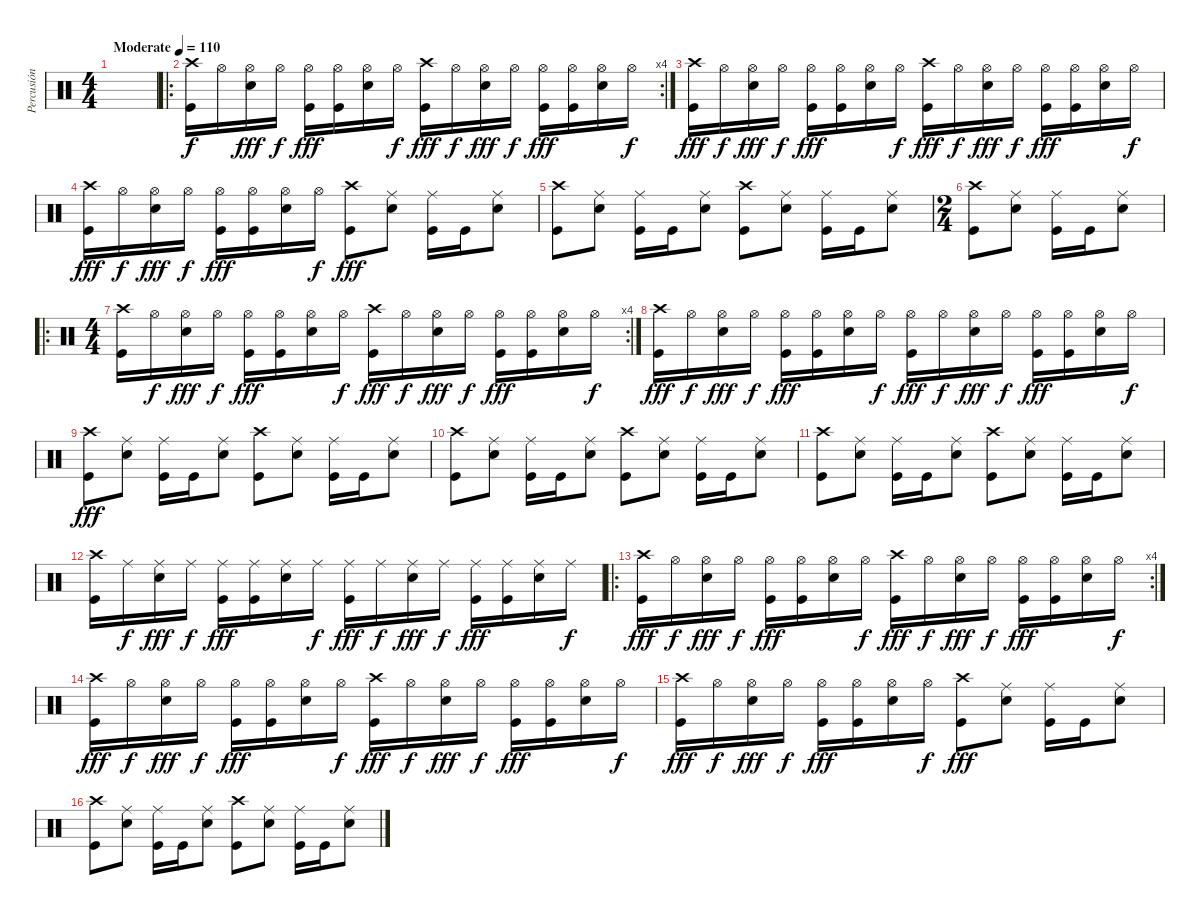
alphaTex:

\track ("Percusión" "Percusión") {instrument percussion}
\staff {score}
\articulation defaults
\ts (4 4)
\tempo (110 "Moderate")
\clef neutral
\ks c
|
\ro
\rc 4
("Crash high (hit)" "Kick (hit)").16 "Hi-Hat (open)".16{dy f} ("Hi-Hat (open)" "Electric Snare (hit)").16{dy fff} "Hi-Hat (open)".16{dy f} ("Hi-Hat (open)" "Kick (hit)").16{dy fff} ("Hi-Hat (open)" "Kick (hit)").16 ("Hi-Hat (open)" "Electric Snare (hit)").16 "Hi-Hat (open)".16{dy f} ("Crash high (hit)" "Kick (hit)").16{dy fff} "Hi-Hat (open)".16{dy f} ("Hi-Hat (open)" "Electric Snare (hit)").16{dy fff} "Hi-Hat (open)".16{dy f} ("Hi-Hat (open)" "Kick (hit)").16{dy fff} ("Hi-Hat (open)" "Kick (hit)").16 ("Hi-Hat (open)" "Electric Snare (hit)").16 "Hi-Hat (open)".16{dy f} |
("Crash high (hit)" "Kick (hit)").16{dy fff} "Hi-Hat (open)".16{dy f} ("Hi-Hat (open)" "Electric Snare (hit)").16{dy fff} "Hi-Hat (open)".16{dy f} ("Hi-Hat (open)" "Kick (hit)").16{dy fff} ("Hi-Hat (open)" "Kick (hit)").16 ("Hi-Hat (open)" "Electric Snare (hit)").16 "Hi-Hat (open)".16{dy f} ("Crash high (hit)" "Kick (hit)").16{dy fff} "Hi-Hat (open)".16{dy f} ("Hi-Hat (open)" "Electric Snare (hit)").16{dy fff} "Hi-Hat (open)".16{dy f} ("Hi-Hat (open)" "Kick (hit)").16{dy fff} ("Hi-Hat (open)" "Kick (hit)").16 ("Hi-Hat (open)" "Electric Snare (hit)").16 "Hi-Hat (open)".16{dy f} |
("Crash high (hit)" "Kick (hit)").16{dy fff} "Hi-Hat (open)".16{dy f} ("Hi-Hat (open)" "Electric Snare (hit)").16{dy fff} "Hi-Hat (open)".16{dy f} ("Hi-Hat (open)" "Kick (hit)").16{dy fff} ("Hi-Hat (open)" "Kick (hit)").16 ("Hi-Hat (open)" "Electric Snare (hit)").16 "Hi-Hat (open)".16{dy f} ("Crash high (hit)" "Kick (hit)").8{dy fff} ("Ride (middle)" "Electric Snare (hit)").8 ("Ride (middle)" "Kick (hit)").16 "Kick (hit)".16 ("Ride (middle)" "Electric Snare (hit)").8 |
("Crash high (hit)" "Kick (hit)").8 ("Ride (middle)" "Electric Snare (hit)").8 ("Ride (middle)" "Kick (hit)").16 "Kick (hit)".16 ("Ride (middle)" "Electric Snare (hit)").8 ("Crash high (hit)" "Kick (hit)").8 ("Ride (middle)" "Electric Snare (hit)").8 ("Ride (middle)" "Kick (hit)").16 "Kick (hit)".16 ("Ride (middle)" "Electric Snare (hit)").8 |
\ts (2 4)
("Crash high (hit)" "Kick (hit)").8 ("Ride (middle)" "Electric Snare (hit)").8 ("Ride (middle)" "Kick (hit)").16 "Kick (hit)".16 ("Ride (middle)" "Electric Snare (hit)").8 |
\ro
\rc 4
\ts (4 4)
("Crash high (hit)" "Kick (hit)").16 "Hi-Hat (open)".16{dy f} ("Hi-Hat (open)" "Electric Snare (hit)").16{dy fff} "Hi-Hat (open)".16{dy f} ("Hi-Hat (open)" "Kick (hit)").16{dy fff} ("Hi-Hat (open)" "Kick (hit)").16 ("Hi-Hat (open)" "Electric Snare (hit)").16 "Hi-Hat (open)".16{dy f} ("Crash high (hit)" "Kick (hit)").16{dy fff} "Hi-Hat (open)".16{dy f} ("Hi-Hat (open)" "Electric Snare (hit)").16{dy fff} "Hi-Hat (open)".16{dy f} ("Hi-Hat (open)" "Kick (hit)").16{dy fff} ("Hi-Hat (open)" "Kick (hit)").16 ("Hi-Hat (open)" "Electric Snare (hit)").16 "Hi-Hat (open)".16{dy f} |
("Crash high (hit)" "Kick (hit)").16{dy fff} "Hi-Hat (open)".16{dy f} ("Hi-Hat (open)" "Electric Snare (hit)").16{dy fff} "Hi-Hat (open)".16{dy f} ("Hi-Hat (open)" "Kick (hit)").16{dy fff} ("Hi-Hat (open)" "Kick (hit)").16 ("Hi-Hat (open)" "Electric Snare (hit)").16 "Hi-Hat (open)".16{dy f} ("Hi-Hat (open)" "Kick (hit)").16{dy fff} "Hi-Hat (open)".16{dy f} ("Hi-Hat (open)" "Electric Snare (hit)").16{dy fff} "Hi-Hat (open)".16{dy f} ("Hi-Hat (open)" "Kick (hit)").16{dy fff} ("Hi-Hat (open)" "Kick (hit)").16 ("Hi-Hat (open)" "Electric Snare (hit)").16 "Hi-Hat (open)".16{dy f} |
("Crash high (hit)" "Kick (hit)").8{dy fff} ("Ride (middle)" "Electric Snare (hit)").8 ("Ride (middle)" "Kick (hit)").16 "Kick (hit)".16 ("Ride (middle)" "Electric Snare (hit)").8 ("Crash high (hit)" "Kick (hit)").8 ("Ride (middle)" "Electric Snare (hit)").8 ("Ride (middle)" "Kick (hit)").16 "Kick (hit)".16 ("Ride (middle)" "Electric Snare (hit)").8 |
("Crash high (hit)" "Kick (hit)").8 ("Ride (middle)" "Electric Snare (hit)").8 ("Ride (middle)" "Kick (hit)").16 "Kick (hit)".16 ("Ride (middle)" "Electric Snare (hit)").8 ("Crash high (hit)" "Kick (hit)").8 ("Ride (middle)" "Electric Snare (hit)").8 ("Ride (middle)" "Kick (hit)").16 "Kick (hit)".16 ("Ride (middle)" "Electric Snare (hit)").8 |
("Crash high (hit)" "Kick (hit)").8 ("Ride (middle)" "Electric Snare (hit)").8 ("Ride (middle)" "Kick (hit)").16 "Kick (hit)".16 ("Ride (middle)" "Electric Snare (hit)").8 ("Crash high (hit)" "Kick (hit)").8 ("Ride (middle)" "Electric Snare (hit)").8 ("Ride (middle)" "Kick (hit)").16 "Kick (hit)".16 ("Ride (middle)" "Electric Snare (hit)").8 |
("Crash high (hit)" "Kick (hit)").16 "Ride (middle)".16{dy f} ("Ride (middle)" "Electric Snare (hit)").16{dy fff} "Ride (middle)".16{dy f} ("Ride (middle)" "Kick (hit)").16{dy fff} ("Ride (middle)" "Kick (hit)").16 ("Ride (middle)" "Electric Snare (hit)").16 "Ride (middle)".16{dy f} ("Ride (middle)" "Kick (hit)").16{dy fff} "Ride (middle)".16{dy f} ("Ride (middle)" "Electric Snare (hit)").16{dy fff} "Ride (middle)".16{dy f} ("Ride (middle)" "Kick (hit)").16{dy fff} ("Ride (middle)" "Kick (hit)").16 ("Ride (middle)" "Electric Snare (hit)").16 "Ride (middle)".16{dy f} |
\ro
\rc 4
("Crash high (hit)" "Kick (hit)").16{dy fff} "Hi-Hat (open)".16{dy f} ("Hi-Hat (open)" "Electric Snare (hit)").16{dy fff} "Hi-Hat (open)".16{dy f} ("Hi-Hat (open)" "Kick (hit)").16{dy fff} ("Hi-Hat (open)" "Kick (hit)").16 ("Hi-Hat (open)" "Electric Snare (hit)").16 "Hi-Hat (open)".16{dy f} ("Crash high (hit)" "Kick (hit)").16{dy fff} "Hi-Hat (open)".16{dy f} ("Hi-Hat (open)" "Electric Snare (hit)").16{dy fff} "Hi-Hat (open)".16{dy f} ("Hi-Hat (open)" "Kick (hit)").16{dy fff} ("Hi-Hat (open)" "Kick (hit)").16 ("Hi-Hat (open)" "Electric Snare (hit)").16 "Hi-Hat (open)".16{dy f} |
("Crash high (hit)" "Kick (hit)").16{dy fff} "Hi-Hat (open)".16{dy f} ("Hi-Hat (open)" "Electric Snare (hit)").16{dy fff} "Hi-Hat (open)".16{dy f} ("Hi-Hat (open)" "Kick (hit)").16{dy fff} ("Hi-Hat (open)" "Kick (hit)").16 ("Hi-Hat (open)" "Electric Snare (hit)").16 "Hi-Hat (open)".16{dy f} ("Crash high (hit)" "Kick (hit)").16{dy fff} "Hi-Hat (open)".16{dy f} ("Hi-Hat (open)" "Electric Snare (hit)").16{dy fff} "Hi-Hat (open)".16{dy f} ("Hi-Hat (open)" "Kick (hit)").16{dy fff} ("Hi-Hat (open)" "Kick (hit)").16 ("Hi-Hat (open)" "Electric Snare (hit)").16 "Hi-Hat (open)".16{dy f} |
("Crash high (hit)" "Kick (hit)").16{dy fff} "Hi-Hat (open)".16{dy f} ("Hi-Hat (open)" "Electric Snare (hit)").16{dy fff} "Hi-Hat (open)".16{dy f} ("Hi-Hat (open)" "Kick (hit)").16{dy fff} ("Hi-Hat (open)" "Kick (hit)").16 ("Hi-Hat (open)" "Electric Snare (hit)").16 "Hi-Hat (open)".16{dy f} ("Crash high (hit)" "Kick (hit)").8{dy fff} ("Ride (middle)" "Electric Snare (hit)").8 ("Ride (middle)" "Kick (hit)").16 "Kick (hit)".16 ("Ride (middle)" "Electric Snare (hit)").8 |
("Crash high (hit)" "Kick (hit)").8 ("Ride (middle)" "Electric Snare (hit)").8 ("Ride (middle)" "Kick (hit)").16 "Kick (hit)".16 ("Ride (middle)" "Electric Snare (hit)").8 ("Crash high (hit)" "Kick (hit)").8 ("Ride (middle)" "Electric Snare (hit)").8 ("Ride (middle)" "Kick (hit)").16 "Kick (hit)".16 ("Ride (middle)" "Electric Snare (hit)").8
